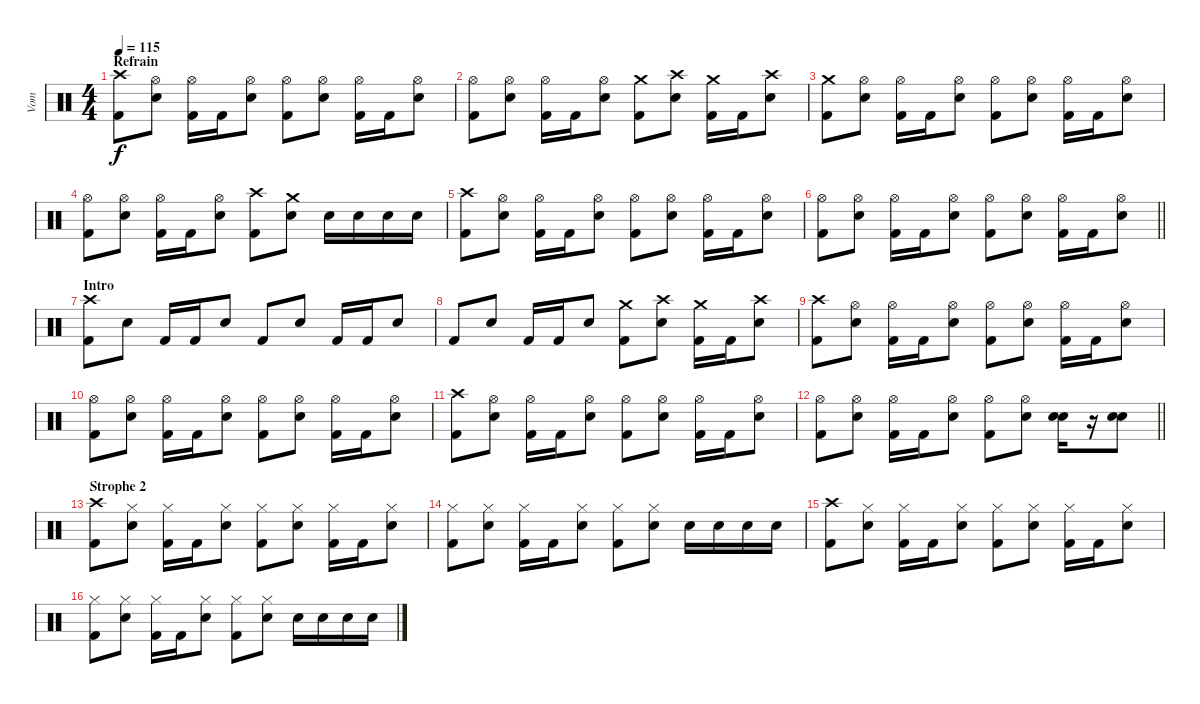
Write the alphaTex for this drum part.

\track ("Vom" "Vom") {instrument percussion}
\staff {score}
\articulation defaults
\ts (4 4)
\section ("" "Refrain")
\tempo 115
\clef neutral
\ks c
("Crash high (hit)" "Kick (hit) 2").8{dy f} ("Hi-Hat (open)" "Snare (hit) 2").8 ("Hi-Hat (open)" "Kick (hit) 2").16 "Kick (hit) 2".16 ("Hi-Hat (open)" "Snare (hit) 2").8 ("Hi-Hat (open)" "Kick (hit) 2").8 ("Hi-Hat (open)" "Snare (hit) 2").8 ("Hi-Hat (open)" "Kick (hit) 2").16 "Kick (hit) 2".16 ("Hi-Hat (open)" "Snare (hit) 2").8 |
("Hi-Hat (open)" "Kick (hit) 2").8 ("Hi-Hat (open)" "Snare (hit) 2").8 ("Hi-Hat (open)" "Kick (hit) 2").16 "Kick (hit) 2".16 ("Hi-Hat (open)" "Snare (hit) 2").8 ("Crash medium (hit)" "Kick (hit) 2").8 ("Crash high (hit)" "Snare (hit) 2").8 ("Crash medium (hit)" "Kick (hit) 2").16 "Kick (hit) 2".16 ("Crash high (hit)" "Snare (hit) 2").8 |
("Crash medium (hit)" "Kick (hit) 2").8 ("Hi-Hat (open)" "Snare (hit) 2").8 ("Hi-Hat (open)" "Kick (hit) 2").16 "Kick (hit) 2".16 ("Hi-Hat (open)" "Snare (hit) 2").8 ("Hi-Hat (open)" "Kick (hit) 2").8 ("Hi-Hat (open)" "Snare (hit) 2").8 ("Hi-Hat (open)" "Kick (hit) 2").16 "Kick (hit) 2".16 ("Hi-Hat (open)" "Snare (hit) 2").8 |
("Hi-Hat (open)" "Kick (hit) 2").8 ("Hi-Hat (open)" "Snare (hit) 2").8 ("Hi-Hat (open)" "Kick (hit) 2").16 "Kick (hit) 2".16 ("Hi-Hat (open)" "Snare (hit) 2").8 ("Crash high (hit)" "Kick (hit) 2").8 ("Crash medium (hit)" "Snare (hit) 2").8 "Snare (hit) 2".16 "Snare (hit) 2".16 "Snare (hit) 2".16 "Snare (hit) 2".16 |
("Crash high (hit)" "Kick (hit) 2").8 ("Hi-Hat (open)" "Snare (hit) 2").8 ("Hi-Hat (open)" "Kick (hit) 2").16 "Kick (hit) 2".16 ("Hi-Hat (open)" "Snare (hit) 2").8 ("Hi-Hat (open)" "Kick (hit) 2").8 ("Hi-Hat (open)" "Snare (hit) 2").8 ("Hi-Hat (open)" "Kick (hit) 2").16 "Kick (hit) 2".16 ("Hi-Hat (open)" "Snare (hit) 2").8 |
\barLineRight lightlight
("Hi-Hat (open)" "Kick (hit) 2").8 ("Hi-Hat (open)" "Snare (hit) 2").8 ("Hi-Hat (open)" "Kick (hit) 2").16 "Kick (hit) 2".16 ("Hi-Hat (open)" "Snare (hit) 2").8 ("Hi-Hat (open)" "Kick (hit) 2").8 ("Hi-Hat (open)" "Snare (hit) 2").8 ("Hi-Hat (open)" "Kick (hit) 2").16 "Kick (hit) 2".16 ("Hi-Hat (open)" "Snare (hit) 2").8 |
\section ("" "Intro")
("Crash high (hit)" "Kick (hit) 2").8 "Snare (hit) 2".8 "Kick (hit) 2".16 "Kick (hit) 2".16 "Snare (hit) 2".8 "Kick (hit) 2".8 "Snare (hit) 2".8 "Kick (hit) 2".16 "Kick (hit) 2".16 "Snare (hit) 2".8 |
"Kick (hit) 2".8 "Snare (hit) 2".8 "Kick (hit) 2".16 "Kick (hit) 2".16 "Snare (hit) 2".8 ("Crash medium (hit)" "Kick (hit) 2").8 ("Crash high (hit)" "Snare (hit) 2").8 ("Crash medium (hit)" "Kick (hit) 2").16 "Kick (hit) 2".16 ("Crash high (hit)" "Snare (hit) 2").8 |
("Crash high (hit)" "Kick (hit) 2").8 ("Hi-Hat (open)" "Snare (hit) 2").8 ("Hi-Hat (open)" "Kick (hit) 2").16 "Kick (hit) 2".16 ("Hi-Hat (open)" "Snare (hit) 2").8 ("Hi-Hat (open)" "Kick (hit) 2").8 ("Hi-Hat (open)" "Snare (hit) 2").8 ("Hi-Hat (open)" "Kick (hit) 2").16 "Kick (hit) 2".16 ("Hi-Hat (open)" "Snare (hit) 2").8 |
("Hi-Hat (open)" "Kick (hit) 2").8 ("Hi-Hat (open)" "Snare (hit) 2").8 ("Hi-Hat (open)" "Kick (hit) 2").16 "Kick (hit) 2".16 ("Hi-Hat (open)" "Snare (hit) 2").8 ("Hi-Hat (open)" "Kick (hit) 2").8 ("Hi-Hat (open)" "Snare (hit) 2").8 ("Hi-Hat (open)" "Kick (hit) 2").16 "Kick (hit) 2".16 ("Hi-Hat (open)" "Snare (hit) 2").8 |
("Crash high (hit)" "Kick (hit) 2").8 ("Hi-Hat (open)" "Snare (hit) 2").8 ("Hi-Hat (open)" "Kick (hit) 2").16 "Kick (hit) 2".16 ("Hi-Hat (open)" "Snare (hit) 2").8 ("Hi-Hat (open)" "Kick (hit) 2").8 ("Hi-Hat (open)" "Snare (hit) 2").8 ("Hi-Hat (open)" "Kick (hit) 2").16 "Kick (hit) 2".16 ("Hi-Hat (open)" "Snare (hit) 2").8 |
\barLineRight lightlight
("Hi-Hat (open)" "Kick (hit) 2").8 ("Hi-Hat (open)" "Snare (hit) 2").8 ("Hi-Hat (open)" "Kick (hit) 2").16 "Kick (hit) 2".16 ("Hi-Hat (open)" "Snare (hit) 2").8 ("Hi-Hat (open)" "Kick (hit) 2").8 ("Hi-Hat (open)" "Snare (hit) 2").8 ("Snare (hit) 2" "Snare (hit) 2").16 r.16 ("Snare (hit) 2" "Snare (hit) 2").8 |
\section ("" "Strophe 2")
("Crash high (hit)" "Kick (hit) 2").8 ("Hi-Hat (closed)" "Snare (hit) 2").8 ("Hi-Hat (closed)" "Kick (hit) 2").16 "Kick (hit) 2".16 ("Hi-Hat (closed)" "Snare (hit) 2").8 ("Hi-Hat (closed)" "Kick (hit) 2").8 ("Hi-Hat (closed)" "Snare (hit) 2").8 ("Hi-Hat (closed)" "Kick (hit) 2").16 "Kick (hit) 2".16 ("Hi-Hat (closed)" "Snare (hit) 2").8 |
("Hi-Hat (closed)" "Kick (hit) 2").8 ("Hi-Hat (closed)" "Snare (hit) 2").8 ("Hi-Hat (closed)" "Kick (hit) 2").16 "Kick (hit) 2".16 ("Hi-Hat (closed)" "Snare (hit) 2").8 ("Hi-Hat (closed)" "Kick (hit) 2").8 ("Hi-Hat (closed)" "Snare (hit) 2").8 "Snare (hit) 2".16 "Snare (hit) 2".16 "Snare (hit) 2".16 "Snare (hit) 2".16 |
("Crash high (hit)" "Kick (hit) 2").8 ("Hi-Hat (closed)" "Snare (hit) 2").8 ("Hi-Hat (closed)" "Kick (hit) 2").16 "Kick (hit) 2".16 ("Hi-Hat (closed)" "Snare (hit) 2").8 ("Hi-Hat (closed)" "Kick (hit) 2").8 ("Hi-Hat (closed)" "Snare (hit) 2").8 ("Hi-Hat (closed)" "Kick (hit) 2").16 "Kick (hit) 2".16 ("Hi-Hat (closed)" "Snare (hit) 2").8 |
("Hi-Hat (closed)" "Kick (hit) 2").8 ("Hi-Hat (closed)" "Snare (hit) 2").8 ("Hi-Hat (closed)" "Kick (hit) 2").16 "Kick (hit) 2".16 ("Hi-Hat (closed)" "Snare (hit) 2").8 ("Hi-Hat (closed)" "Kick (hit) 2").8 ("Hi-Hat (closed)" "Snare (hit) 2").8 "Snare (hit) 2".16 "Snare (hit) 2".16 "Snare (hit) 2".16 "Snare (hit) 2".16
